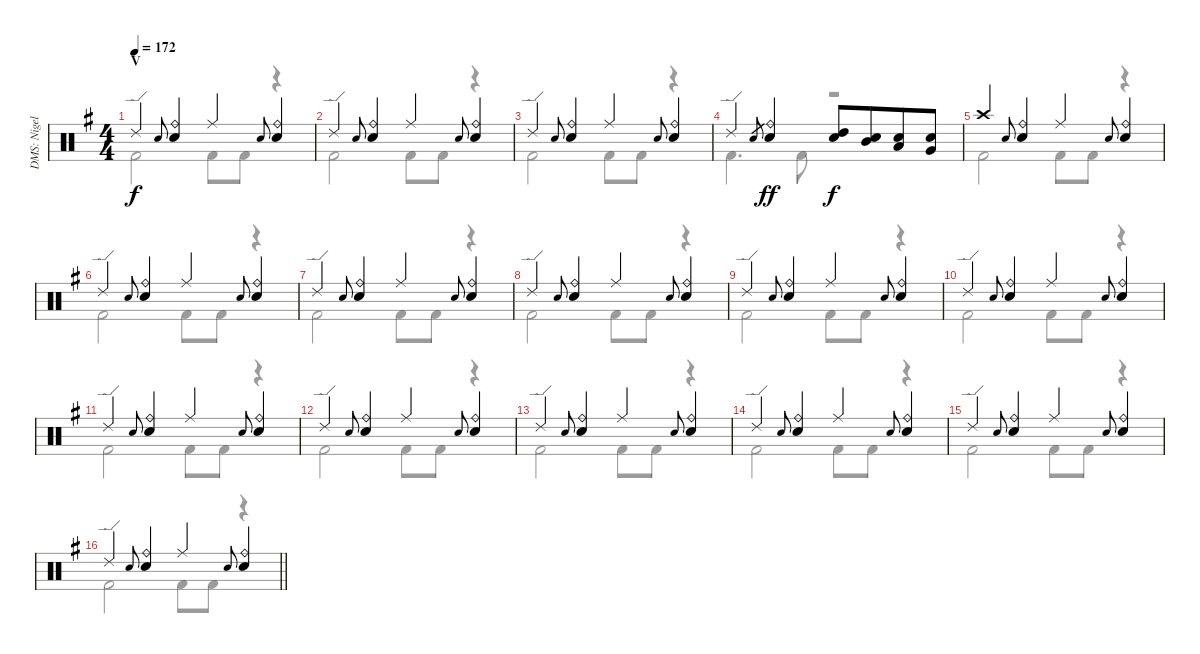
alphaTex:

\track ("DMS: Nigel Olsson" "DMS: Nigel") {instrument percussion}
\staff {score}
\articulation defaults
\voice
\ts (4 4)
\section ("" "V")
\tempo 172
\clef neutral
\ks g "Ride (edge) 2".4{dy f} "Snare (hit) 2".8{gr onbeat}
("Ride (bell)" "Electric Snare (hit)").4 "Ride (middle)".4 "Snare (hit) 2".8{gr onbeat} ("Ride (bell)" "Electric Snare (hit)").4 |
"Ride (edge) 2".4 "Snare (hit) 2".8{gr onbeat} ("Ride (bell)" "Electric Snare (hit)").4 "Ride (middle)".4 "Snare (hit) 2".8{gr onbeat} ("Ride (bell)" "Electric Snare (hit)").4 |
"Ride (edge) 2".4 "Snare (hit) 2".8{gr onbeat} ("Ride (bell)" "Electric Snare (hit)").4 "Ride (middle)".4 "Snare (hit) 2".8{gr onbeat} ("Ride (bell)" "Electric Snare (hit)").4 |
"Ride (edge) 2".4 "Snare (hit) 2".8{gr} ("Ride (bell)" "Electric Snare (hit)").4{dy ff} ("Electric Snare (hit)" "High Tom (hit)").8{dy f} ("Electric Snare (hit)" "Mid Tom (hit)").8{beam merge} ("Electric Snare (hit)" "Low Tom (hit)").8 ("Electric Snare (hit)" "Very Low Tom (hit)").8 |
"Crash high (hit)".4 "Snare (hit) 2".8{gr onbeat} ("Ride (bell)" "Electric Snare (hit)").4 "Ride (middle)".4 "Snare (hit) 2".8{gr onbeat} ("Ride (bell)" "Electric Snare (hit)").4 |
"Ride (edge) 2".4 "Snare (hit) 2".8{gr onbeat} ("Ride (bell)" "Electric Snare (hit)").4 "Ride (middle)".4 "Snare (hit) 2".8{gr onbeat} ("Ride (bell)" "Electric Snare (hit)").4 |
"Ride (edge) 2".4 "Snare (hit) 2".8{gr onbeat} ("Ride (bell)" "Electric Snare (hit)").4 "Ride (middle)".4 "Snare (hit) 2".8{gr onbeat} ("Ride (bell)" "Electric Snare (hit)").4 |
"Ride (edge) 2".4 "Snare (hit) 2".8{gr onbeat} ("Ride (bell)" "Electric Snare (hit)").4 "Ride (middle)".4 "Snare (hit) 2".8{gr onbeat} ("Ride (bell)" "Electric Snare (hit)").4 |
"Ride (edge) 2".4 "Snare (hit) 2".8{gr onbeat} ("Ride (bell)" "Electric Snare (hit)").4 "Ride (middle)".4 "Snare (hit) 2".8{gr onbeat} ("Ride (bell)" "Electric Snare (hit)").4 |
"Ride (edge) 2".4 "Snare (hit) 2".8{gr onbeat} ("Ride (bell)" "Electric Snare (hit)").4 "Ride (middle)".4 "Snare (hit) 2".8{gr onbeat} ("Ride (bell)" "Electric Snare (hit)").4 |
"Ride (edge) 2".4 "Snare (hit) 2".8{gr onbeat} ("Ride (bell)" "Electric Snare (hit)").4 "Ride (middle)".4 "Snare (hit) 2".8{gr onbeat} ("Ride (bell)" "Electric Snare (hit)").4 |
"Ride (edge) 2".4 "Snare (hit) 2".8{gr onbeat} ("Ride (bell)" "Electric Snare (hit)").4 "Ride (middle)".4 "Snare (hit) 2".8{gr onbeat} ("Ride (bell)" "Electric Snare (hit)").4 |
"Ride (edge) 2".4 "Snare (hit) 2".8{gr onbeat} ("Ride (bell)" "Electric Snare (hit)").4 "Ride (middle)".4 "Snare (hit) 2".8{gr onbeat} ("Ride (bell)" "Electric Snare (hit)").4 |
"Ride (edge) 2".4 "Snare (hit) 2".8{gr onbeat} ("Ride (bell)" "Electric Snare (hit)").4 "Ride (middle)".4 "Snare (hit) 2".8{gr onbeat} ("Ride (bell)" "Electric Snare (hit)").4 |
"Ride (edge) 2".4 "Snare (hit) 2".8{gr onbeat} ("Ride (bell)" "Electric Snare (hit)").4 "Ride (middle)".4 "Snare (hit) 2".8{gr onbeat} ("Ride (bell)" "Electric Snare (hit)").4 |
\barLineRight lightlight "Ride (edge) 2".4 "Snare (hit) 2".8{gr onbeat}
("Ride (bell)" "Electric Snare (hit)").4 "Ride (middle)".4 "Snare (hit) 2".8{gr onbeat} ("Ride (bell)" "Electric Snare (hit)").4
\voice
\clef neutral
\ottava regular
\simile none
\ks g "Kick (hit) 2".2{dy f} "Kick (hit) 2".8 "Kick (hit) 2".8
r.4 |
"Kick (hit) 2".2 "Kick (hit) 2".8 "Kick (hit) 2".8 r.4 |
"Kick (hit) 2".2 "Kick (hit) 2".8 "Kick (hit) 2".8 r.4 |
"Kick (hit) 2".4{d} "Kick (hit) 2".8 r.2 |
"Kick (hit) 2".2 "Kick (hit) 2".8 "Kick (hit) 2".8 r.4 |
"Kick (hit) 2".2 "Kick (hit) 2".8 "Kick (hit) 2".8 r.4 |
"Kick (hit) 2".2 "Kick (hit) 2".8 "Kick (hit) 2".8 r.4 |
"Kick (hit) 2".2 "Kick (hit) 2".8 "Kick (hit) 2".8 r.4 |
"Kick (hit) 2".2 "Kick (hit) 2".8 "Kick (hit) 2".8 r.4 |
"Kick (hit) 2".2 "Kick (hit) 2".8 "Kick (hit) 2".8 r.4 |
"Kick (hit) 2".2 "Kick (hit) 2".8 "Kick (hit) 2".8 r.4 |
"Kick (hit) 2".2 "Kick (hit) 2".8 "Kick (hit) 2".8 r.4 |
"Kick (hit) 2".2 "Kick (hit) 2".8 "Kick (hit) 2".8 r.4 |
"Kick (hit) 2".2 "Kick (hit) 2".8 "Kick (hit) 2".8 r.4 |
"Kick (hit) 2".2 "Kick (hit) 2".8 "Kick (hit) 2".8 r.4 |
\barLineRight lightlight "Kick (hit) 2".2 "Kick (hit) 2".8 "Kick (hit) 2".8
r.4
